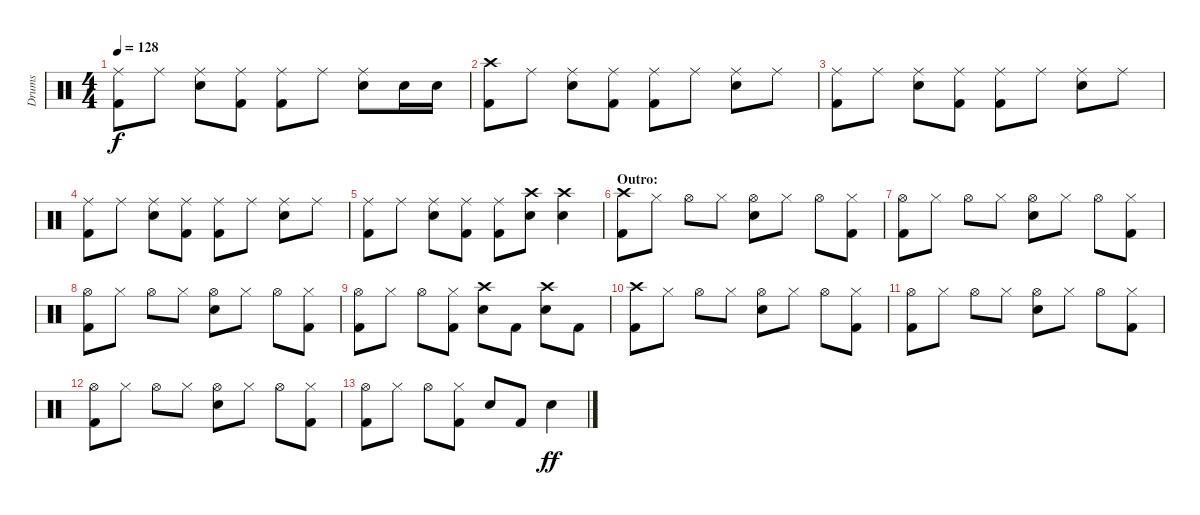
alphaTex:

\track ("Drums" "Drums") {instrument percussion}
\staff {score}
\articulation defaults
\ts (4 4)
\tempo 128
\clef neutral
\ks c
("Ride (middle)" "Kick (hit) 2").8{dy f} "Ride (middle)".8 ("Ride (middle)" "Electric Snare (hit)").8 ("Ride (middle)" "Kick (hit) 2").8 ("Ride (middle)" "Kick (hit) 2").8 "Ride (middle)".8 ("Ride (middle)" "Electric Snare (hit)").8 "Electric Snare (hit)".16 "Electric Snare (hit)".16 |
("Crash high (hit)" "Kick (hit) 2").8 "Ride (middle)".8 ("Ride (middle)" "Electric Snare (hit)").8 ("Ride (middle)" "Kick (hit) 2").8 ("Ride (middle)" "Kick (hit) 2").8 "Ride (middle)".8 ("Ride (middle)" "Electric Snare (hit)").8 "Ride (middle)".8 |
("Ride (middle)" "Kick (hit) 2").8 "Ride (middle)".8 ("Ride (middle)" "Electric Snare (hit)").8 ("Ride (middle)" "Kick (hit) 2").8 ("Ride (middle)" "Kick (hit) 2").8 "Ride (middle)".8 ("Ride (middle)" "Electric Snare (hit)").8 "Ride (middle)".8 |
("Ride (middle)" "Kick (hit) 2").8 "Ride (middle)".8 ("Ride (middle)" "Electric Snare (hit)").8 ("Ride (middle)" "Kick (hit) 2").8 ("Ride (middle)" "Kick (hit) 2").8 "Ride (middle)".8 ("Ride (middle)" "Electric Snare (hit)").8 "Ride (middle)".8 |
("Ride (middle)" "Kick (hit) 2").8 "Ride (middle)".8 ("Ride (middle)" "Electric Snare (hit)").8 ("Ride (middle)" "Kick (hit) 2").8 ("Ride (middle)" "Kick (hit) 2").8 ("Crash high (hit)" "Electric Snare (hit)").8 ("Crash high (hit)" "Electric Snare (hit)").4 |
\section ("" "Outro:")
("Crash high (hit)" "Kick (hit) 2").8 "Hi-Hat (closed)".8 "Hi-Hat (open)".8 "Hi-Hat (closed)".8 ("Hi-Hat (open)" "Electric Snare (hit)").8 "Hi-Hat (closed)".8 "Hi-Hat (open)".8 ("Hi-Hat (closed)" "Kick (hit) 2").8 |
("Hi-Hat (open)" "Kick (hit) 2").8 "Hi-Hat (closed)".8 "Hi-Hat (open)".8 "Hi-Hat (closed)".8 ("Hi-Hat (open)" "Electric Snare (hit)").8 "Hi-Hat (closed)".8 "Hi-Hat (open)".8 ("Hi-Hat (closed)" "Kick (hit) 2").8 |
("Hi-Hat (open)" "Kick (hit) 2").8 "Hi-Hat (closed)".8 "Hi-Hat (open)".8 "Hi-Hat (closed)".8 ("Hi-Hat (open)" "Electric Snare (hit)").8 "Hi-Hat (closed)".8 "Hi-Hat (open)".8 ("Hi-Hat (closed)" "Kick (hit) 2").8 |
("Hi-Hat (open)" "Kick (hit) 2").8 "Hi-Hat (closed)".8 "Hi-Hat (open)".8 ("Hi-Hat (closed)" "Kick (hit) 2").8 ("Crash high (hit)" "Electric Snare (hit)").8 "Kick (hit) 2".8 ("Crash high (hit)" "Electric Snare (hit)").8 "Kick (hit) 2".8 |
("Crash high (hit)" "Kick (hit) 2").8 "Hi-Hat (closed)".8 "Hi-Hat (open)".8 "Hi-Hat (closed)".8 ("Hi-Hat (open)" "Electric Snare (hit)").8 "Hi-Hat (closed)".8 "Hi-Hat (open)".8 ("Hi-Hat (closed)" "Kick (hit) 2").8 |
("Hi-Hat (open)" "Kick (hit) 2").8 "Hi-Hat (closed)".8 "Hi-Hat (open)".8 "Hi-Hat (closed)".8 ("Hi-Hat (open)" "Electric Snare (hit)").8 "Hi-Hat (closed)".8 "Hi-Hat (open)".8 ("Hi-Hat (closed)" "Kick (hit) 2").8 |
("Hi-Hat (open)" "Kick (hit) 2").8 "Hi-Hat (closed)".8 "Hi-Hat (open)".8 "Hi-Hat (closed)".8 ("Hi-Hat (open)" "Electric Snare (hit)").8 "Hi-Hat (closed)".8 "Hi-Hat (open)".8 ("Hi-Hat (closed)" "Kick (hit) 2").8 |
("Hi-Hat (open)" "Kick (hit) 2").8 "Hi-Hat (closed)".8 "Hi-Hat (open)".8 ("Hi-Hat (closed)" "Kick (hit) 2").8 "Electric Snare (hit)".8 "Kick (hit) 2".8 "Electric Snare (hit)".4{dy ff}
